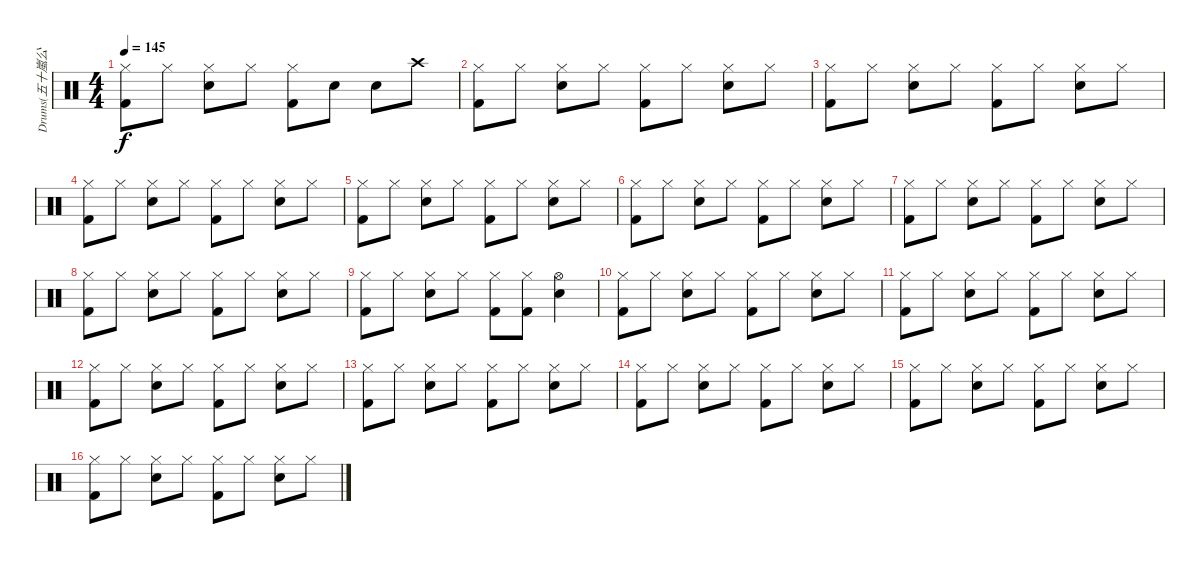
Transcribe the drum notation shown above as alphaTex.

\track ("Drums(五十嵐公太)" "Drums(五十嵐公") {instrument percussion}
\staff {score}
\articulation defaults
\ts (4 4)
\tempo 145
\clef neutral
\ks c
("Hi-Hat (closed)" "Kick (hit) 2").8{dy f} "Hi-Hat (closed)".8 ("Hi-Hat (closed)" "Snare (hit) 2").8 "Hi-Hat (closed)".8 ("Hi-Hat (closed)" "Kick (hit) 2").8 "Snare (hit) 2".8 "Snare (hit) 2".8 "Crash high (hit)".8 |
("Hi-Hat (closed)" "Kick (hit) 2").8 "Hi-Hat (closed)".8 ("Hi-Hat (closed)" "Snare (hit) 2").8 "Hi-Hat (closed)".8 ("Hi-Hat (closed)" "Kick (hit) 2").8 "Hi-Hat (closed)".8 ("Hi-Hat (closed)" "Snare (hit) 2").8 "Hi-Hat (closed)".8 |
("Hi-Hat (closed)" "Kick (hit) 2").8 "Hi-Hat (closed)".8 ("Hi-Hat (closed)" "Snare (hit) 2").8 "Hi-Hat (closed)".8 ("Hi-Hat (closed)" "Kick (hit) 2").8 "Hi-Hat (closed)".8 ("Hi-Hat (closed)" "Snare (hit) 2").8 "Hi-Hat (closed)".8 |
("Hi-Hat (closed)" "Kick (hit) 2").8 "Hi-Hat (closed)".8 ("Hi-Hat (closed)" "Snare (hit) 2").8 "Hi-Hat (closed)".8 ("Hi-Hat (closed)" "Kick (hit) 2").8 "Hi-Hat (closed)".8 ("Hi-Hat (closed)" "Snare (hit) 2").8 "Hi-Hat (closed)".8 |
("Hi-Hat (closed)" "Kick (hit) 2").8 "Hi-Hat (closed)".8 ("Hi-Hat (closed)" "Snare (hit) 2").8 "Hi-Hat (closed)".8 ("Hi-Hat (closed)" "Kick (hit) 2").8 "Hi-Hat (closed)".8 ("Hi-Hat (closed)" "Snare (hit) 2").8 "Hi-Hat (closed)".8 |
("Hi-Hat (closed)" "Kick (hit) 2").8 "Hi-Hat (closed)".8 ("Hi-Hat (closed)" "Snare (hit) 2").8 "Hi-Hat (closed)".8 ("Hi-Hat (closed)" "Kick (hit) 2").8 "Hi-Hat (closed)".8 ("Hi-Hat (closed)" "Snare (hit) 2").8 "Hi-Hat (closed)".8 |
("Hi-Hat (closed)" "Kick (hit) 2").8 "Hi-Hat (closed)".8 ("Hi-Hat (closed)" "Snare (hit) 2").8 "Hi-Hat (closed)".8 ("Hi-Hat (closed)" "Kick (hit) 2").8 "Hi-Hat (closed)".8 ("Hi-Hat (closed)" "Snare (hit) 2").8 "Hi-Hat (closed)".8 |
("Hi-Hat (closed)" "Kick (hit) 2").8 "Hi-Hat (closed)".8 ("Hi-Hat (closed)" "Snare (hit) 2").8 "Hi-Hat (closed)".8 ("Hi-Hat (closed)" "Kick (hit) 2").8 "Hi-Hat (closed)".8 ("Hi-Hat (closed)" "Snare (hit) 2").8 "Hi-Hat (closed)".8 |
("Hi-Hat (closed)" "Kick (hit) 2").8 "Hi-Hat (closed)".8 ("Hi-Hat (closed)" "Snare (hit) 2").8 "Hi-Hat (closed)".8 ("Hi-Hat (closed)" "Kick (hit) 2").8 ("Hi-Hat (closed)" "Kick (hit) 2").8 ("Hi-Hat (open)" "Snare (hit) 2").4 |
("Hi-Hat (closed)" "Kick (hit) 2").8 "Hi-Hat (closed)".8 ("Hi-Hat (closed)" "Snare (hit) 2").8 "Hi-Hat (closed)".8 ("Hi-Hat (closed)" "Kick (hit) 2").8 "Hi-Hat (closed)".8 ("Hi-Hat (closed)" "Snare (hit) 2").8 "Hi-Hat (closed)".8 |
("Hi-Hat (closed)" "Kick (hit) 2").8 "Hi-Hat (closed)".8 ("Hi-Hat (closed)" "Snare (hit) 2").8 "Hi-Hat (closed)".8 ("Hi-Hat (closed)" "Kick (hit) 2").8 "Hi-Hat (closed)".8 ("Hi-Hat (closed)" "Snare (hit) 2").8 "Hi-Hat (closed)".8 |
("Hi-Hat (closed)" "Kick (hit) 2").8 "Hi-Hat (closed)".8 ("Hi-Hat (closed)" "Snare (hit) 2").8 "Hi-Hat (closed)".8 ("Hi-Hat (closed)" "Kick (hit) 2").8 "Hi-Hat (closed)".8 ("Hi-Hat (closed)" "Snare (hit) 2").8 "Hi-Hat (closed)".8 |
("Hi-Hat (closed)" "Kick (hit) 2").8 "Hi-Hat (closed)".8 ("Hi-Hat (closed)" "Snare (hit) 2").8 "Hi-Hat (closed)".8 ("Hi-Hat (closed)" "Kick (hit) 2").8 "Hi-Hat (closed)".8 ("Hi-Hat (closed)" "Snare (hit) 2").8 "Hi-Hat (closed)".8 |
("Hi-Hat (closed)" "Kick (hit) 2").8 "Hi-Hat (closed)".8 ("Hi-Hat (closed)" "Snare (hit) 2").8 "Hi-Hat (closed)".8 ("Hi-Hat (closed)" "Kick (hit) 2").8 "Hi-Hat (closed)".8 ("Hi-Hat (closed)" "Snare (hit) 2").8 "Hi-Hat (closed)".8 |
("Hi-Hat (closed)" "Kick (hit) 2").8 "Hi-Hat (closed)".8 ("Hi-Hat (closed)" "Snare (hit) 2").8 "Hi-Hat (closed)".8 ("Hi-Hat (closed)" "Kick (hit) 2").8 "Hi-Hat (closed)".8 ("Hi-Hat (closed)" "Snare (hit) 2").8 "Hi-Hat (closed)".8 |
("Hi-Hat (closed)" "Kick (hit) 2").8 "Hi-Hat (closed)".8 ("Hi-Hat (closed)" "Snare (hit) 2").8 "Hi-Hat (closed)".8 ("Hi-Hat (closed)" "Kick (hit) 2").8 "Hi-Hat (closed)".8 ("Hi-Hat (closed)" "Snare (hit) 2").8 "Hi-Hat (closed)".8
